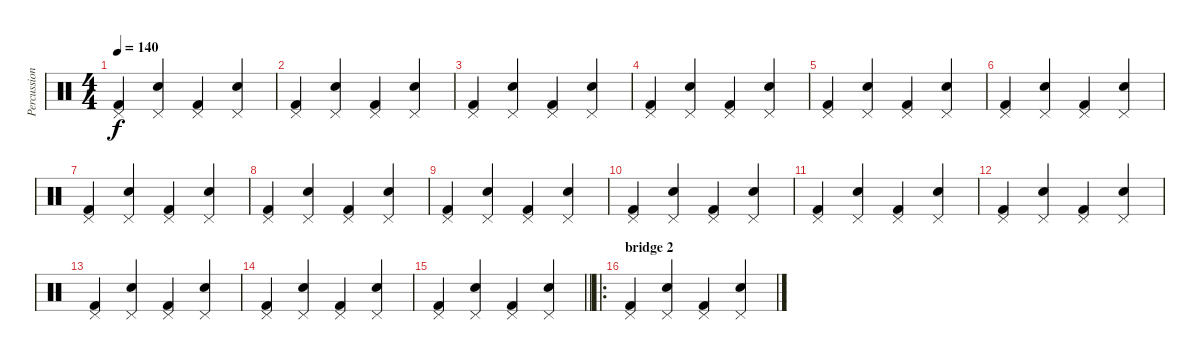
\track ("Percussion" "Percussion") {instrument percussion}
\staff {score}
\articulation defaults
\ts (4 4)
\tempo 140
\clef neutral
\ks c
("Kick (hit) 2" "Pedal Hi-Hat (hit)").4{dy f} ("Snare (hit) 2" "Pedal Hi-Hat (hit)").4 ("Kick (hit) 2" "Pedal Hi-Hat (hit)").4 ("Snare (hit) 2" "Pedal Hi-Hat (hit)").4 |
("Kick (hit) 2" "Pedal Hi-Hat (hit)").4 ("Snare (hit) 2" "Pedal Hi-Hat (hit)").4 ("Kick (hit) 2" "Pedal Hi-Hat (hit)").4 ("Snare (hit) 2" "Pedal Hi-Hat (hit)").4 |
("Kick (hit) 2" "Pedal Hi-Hat (hit)").4 ("Snare (hit) 2" "Pedal Hi-Hat (hit)").4 ("Kick (hit) 2" "Pedal Hi-Hat (hit)").4 ("Snare (hit) 2" "Pedal Hi-Hat (hit)").4 |
("Kick (hit) 2" "Pedal Hi-Hat (hit)").4 ("Snare (hit) 2" "Pedal Hi-Hat (hit)").4 ("Kick (hit) 2" "Pedal Hi-Hat (hit)").4 ("Snare (hit) 2" "Pedal Hi-Hat (hit)").4 |
("Kick (hit) 2" "Pedal Hi-Hat (hit)").4 ("Snare (hit) 2" "Pedal Hi-Hat (hit)").4 ("Kick (hit) 2" "Pedal Hi-Hat (hit)").4 ("Snare (hit) 2" "Pedal Hi-Hat (hit)").4 |
("Kick (hit) 2" "Pedal Hi-Hat (hit)").4 ("Snare (hit) 2" "Pedal Hi-Hat (hit)").4 ("Kick (hit) 2" "Pedal Hi-Hat (hit)").4 ("Snare (hit) 2" "Pedal Hi-Hat (hit)").4 |
("Kick (hit) 2" "Pedal Hi-Hat (hit)").4 ("Snare (hit) 2" "Pedal Hi-Hat (hit)").4 ("Kick (hit) 2" "Pedal Hi-Hat (hit)").4 ("Snare (hit) 2" "Pedal Hi-Hat (hit)").4 |
("Kick (hit) 2" "Pedal Hi-Hat (hit)").4 ("Snare (hit) 2" "Pedal Hi-Hat (hit)").4 ("Kick (hit) 2" "Pedal Hi-Hat (hit)").4 ("Snare (hit) 2" "Pedal Hi-Hat (hit)").4 |
("Kick (hit) 2" "Pedal Hi-Hat (hit)").4 ("Snare (hit) 2" "Pedal Hi-Hat (hit)").4 ("Kick (hit) 2" "Pedal Hi-Hat (hit)").4 ("Snare (hit) 2" "Pedal Hi-Hat (hit)").4 |
("Kick (hit) 2" "Pedal Hi-Hat (hit)").4 ("Snare (hit) 2" "Pedal Hi-Hat (hit)").4 ("Kick (hit) 2" "Pedal Hi-Hat (hit)").4 ("Snare (hit) 2" "Pedal Hi-Hat (hit)").4 |
("Kick (hit) 2" "Pedal Hi-Hat (hit)").4 ("Snare (hit) 2" "Pedal Hi-Hat (hit)").4 ("Kick (hit) 2" "Pedal Hi-Hat (hit)").4 ("Snare (hit) 2" "Pedal Hi-Hat (hit)").4 |
("Kick (hit) 2" "Pedal Hi-Hat (hit)").4 ("Snare (hit) 2" "Pedal Hi-Hat (hit)").4 ("Kick (hit) 2" "Pedal Hi-Hat (hit)").4 ("Snare (hit) 2" "Pedal Hi-Hat (hit)").4 |
("Kick (hit) 2" "Pedal Hi-Hat (hit)").4 ("Snare (hit) 2" "Pedal Hi-Hat (hit)").4 ("Kick (hit) 2" "Pedal Hi-Hat (hit)").4 ("Snare (hit) 2" "Pedal Hi-Hat (hit)").4 |
("Kick (hit) 2" "Pedal Hi-Hat (hit)").4 ("Snare (hit) 2" "Pedal Hi-Hat (hit)").4 ("Kick (hit) 2" "Pedal Hi-Hat (hit)").4 ("Snare (hit) 2" "Pedal Hi-Hat (hit)").4 |
\barLineRight lightlight
("Kick (hit) 2" "Pedal Hi-Hat (hit)").4 ("Snare (hit) 2" "Pedal Hi-Hat (hit)").4 ("Kick (hit) 2" "Pedal Hi-Hat (hit)").4 ("Snare (hit) 2" "Pedal Hi-Hat (hit)").4 |
\ro
\section ("" "bridge 2")
("Kick (hit) 2" "Pedal Hi-Hat (hit)").4 ("Snare (hit) 2" "Pedal Hi-Hat (hit)").4 ("Kick (hit) 2" "Pedal Hi-Hat (hit)").4 ("Snare (hit) 2" "Pedal Hi-Hat (hit)").4
